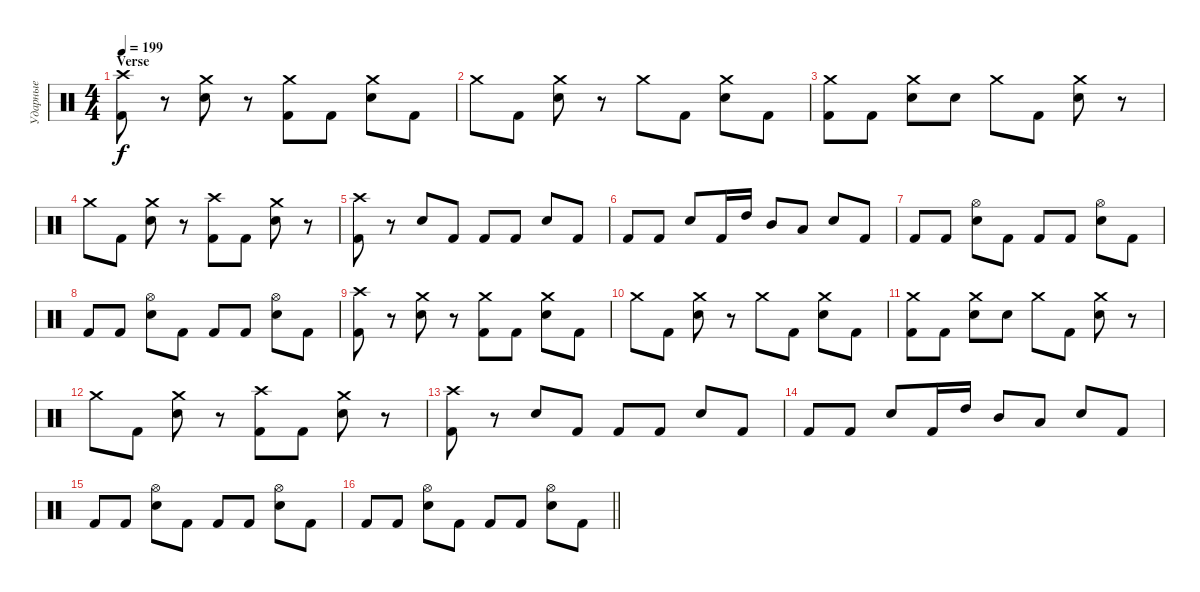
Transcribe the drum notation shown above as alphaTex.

\track ("Ударные" "Ударные") {instrument percussion}
\staff {score}
\articulation defaults
\ts (4 4)
\section ("" "Verse")
\tempo 199
\clef neutral
\ks c
("Crash high (hit)" "Kick (hit) 2").8{dy f} r.8 ("Crash medium (hit)" "Electric Snare (hit)").8 r.8 ("Crash medium (hit)" "Kick (hit) 2").8 "Kick (hit) 2".8 ("Crash medium (hit)" "Electric Snare (hit)").8 "Kick (hit) 2".8 |
"Crash medium (hit)".8 "Kick (hit) 2".8 ("Crash medium (hit)" "Electric Snare (hit)").8 r.8 "Crash medium (hit)".8 "Kick (hit) 2".8 ("Crash medium (hit)" "Electric Snare (hit)").8 "Kick (hit) 2".8 |
("Crash medium (hit)" "Kick (hit) 2").8 "Kick (hit) 2".8 ("Crash medium (hit)" "Electric Snare (hit)").8 "Electric Snare (hit)".8 "Crash medium (hit)".8 "Kick (hit) 2".8 ("Crash medium (hit)" "Electric Snare (hit)").8 r.8 |
"Crash medium (hit)".8 "Kick (hit) 2".8 ("Crash medium (hit)" "Electric Snare (hit)").8 r.8 ("Crash high (hit)" "Kick (hit) 2").8 "Kick (hit) 2".8 ("Crash medium (hit)" "Electric Snare (hit)").8 r.8 |
("Crash high (hit)" "Kick (hit) 2").8 r.8 "Electric Snare (hit)".8 "Kick (hit) 2".8 "Kick (hit) 2".8 "Kick (hit) 2".8 "Electric Snare (hit)".8 "Kick (hit) 2".8 |
"Kick (hit) 2".8 "Kick (hit) 2".8 "Electric Snare (hit)".8 "Kick (hit) 2".16 "High Tom (hit)".16 "Mid Tom (hit)".8 "Low Tom (hit)".8 "Electric Snare (hit)".8 "Kick (hit) 2".8 |
"Kick (hit) 2".8 "Kick (hit) 2".8 ("Hi-Hat (open)" "Electric Snare (hit)").8 "Kick (hit) 2".8 "Kick (hit) 2".8 "Kick (hit) 2".8 ("Hi-Hat (open)" "Electric Snare (hit)").8 "Kick (hit) 2".8 |
"Kick (hit) 2".8 "Kick (hit) 2".8 ("Hi-Hat (open)" "Electric Snare (hit)").8 "Kick (hit) 2".8 "Kick (hit) 2".8 "Kick (hit) 2".8 ("Hi-Hat (open)" "Electric Snare (hit)").8 "Kick (hit) 2".8 |
("Crash high (hit)" "Kick (hit) 2").8 r.8 ("Crash medium (hit)" "Electric Snare (hit)").8 r.8 ("Crash medium (hit)" "Kick (hit) 2").8 "Kick (hit) 2".8 ("Crash medium (hit)" "Electric Snare (hit)").8 "Kick (hit) 2".8 |
"Crash medium (hit)".8 "Kick (hit) 2".8 ("Crash medium (hit)" "Electric Snare (hit)").8 r.8 "Crash medium (hit)".8 "Kick (hit) 2".8 ("Crash medium (hit)" "Electric Snare (hit)").8 "Kick (hit) 2".8 |
("Crash medium (hit)" "Kick (hit) 2").8 "Kick (hit) 2".8 ("Crash medium (hit)" "Electric Snare (hit)").8 "Electric Snare (hit)".8 "Crash medium (hit)".8 "Kick (hit) 2".8 ("Crash medium (hit)" "Electric Snare (hit)").8 r.8 |
"Crash medium (hit)".8 "Kick (hit) 2".8 ("Crash medium (hit)" "Electric Snare (hit)").8 r.8 ("Crash high (hit)" "Kick (hit) 2").8 "Kick (hit) 2".8 ("Crash medium (hit)" "Electric Snare (hit)").8 r.8 |
("Crash high (hit)" "Kick (hit) 2").8 r.8 "Electric Snare (hit)".8 "Kick (hit) 2".8 "Kick (hit) 2".8 "Kick (hit) 2".8 "Electric Snare (hit)".8 "Kick (hit) 2".8 |
"Kick (hit) 2".8 "Kick (hit) 2".8 "Electric Snare (hit)".8 "Kick (hit) 2".16 "High Tom (hit)".16 "Mid Tom (hit)".8 "Low Tom (hit)".8 "Electric Snare (hit)".8 "Kick (hit) 2".8 |
"Kick (hit) 2".8 "Kick (hit) 2".8 ("Hi-Hat (open)" "Electric Snare (hit)").8 "Kick (hit) 2".8 "Kick (hit) 2".8 "Kick (hit) 2".8 ("Hi-Hat (open)" "Electric Snare (hit)").8 "Kick (hit) 2".8 |
\barLineRight lightlight "Kick (hit) 2".8 "Kick (hit) 2".8
("Hi-Hat (open)" "Electric Snare (hit)").8 "Kick (hit) 2".8 "Kick (hit) 2".8 "Kick (hit) 2".8 ("Hi-Hat (open)" "Electric Snare (hit)").8 "Kick (hit) 2".8
